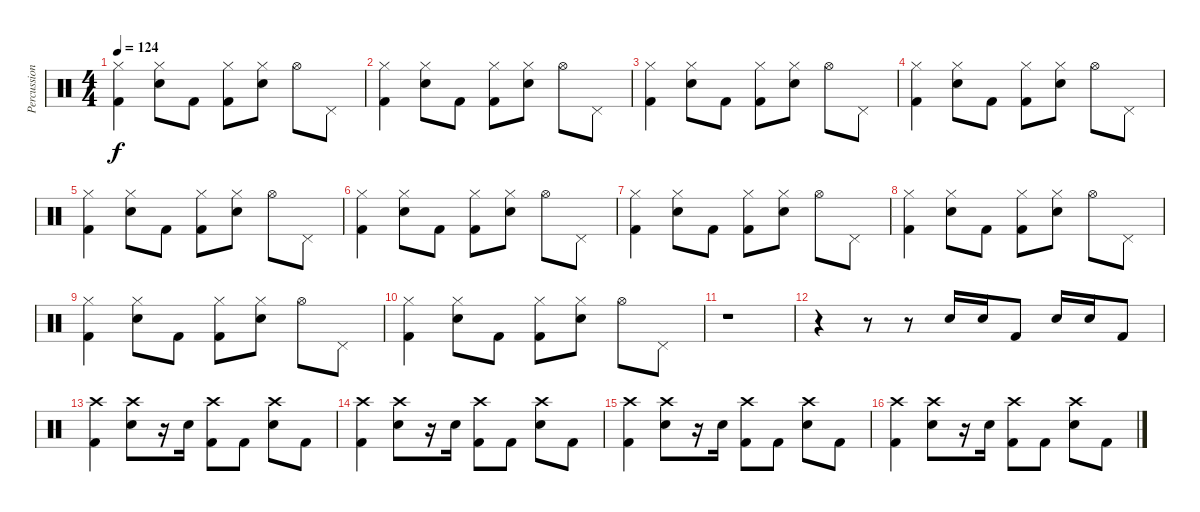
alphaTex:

\track ("Percussion" "Percussion") {instrument percussion}
\staff {score}
\articulation defaults
\ts (4 4)
\tempo 124
\clef neutral
\ks c
("Hi-Hat (closed)" "Kick (hit) 2").4{dy f} ("Hi-Hat (closed)" "Electric Snare (hit)").8 "Kick (hit) 2".8 ("Hi-Hat (closed)" "Kick (hit) 2").8 ("Hi-Hat (closed)" "Electric Snare (hit)").8 "Hi-Hat (open)".8 "Pedal Hi-Hat (hit)".8 |
("Hi-Hat (closed)" "Kick (hit) 2").4 ("Hi-Hat (closed)" "Electric Snare (hit)").8 "Kick (hit) 2".8 ("Hi-Hat (closed)" "Kick (hit) 2").8 ("Hi-Hat (closed)" "Electric Snare (hit)").8 "Hi-Hat (open)".8 "Pedal Hi-Hat (hit)".8 |
("Hi-Hat (closed)" "Kick (hit) 2").4 ("Hi-Hat (closed)" "Electric Snare (hit)").8 "Kick (hit) 2".8 ("Hi-Hat (closed)" "Kick (hit) 2").8 ("Hi-Hat (closed)" "Electric Snare (hit)").8 "Hi-Hat (open)".8 "Pedal Hi-Hat (hit)".8 |
("Hi-Hat (closed)" "Kick (hit) 2").4 ("Hi-Hat (closed)" "Electric Snare (hit)").8 "Kick (hit) 2".8 ("Hi-Hat (closed)" "Kick (hit) 2").8 ("Hi-Hat (closed)" "Electric Snare (hit)").8 "Hi-Hat (open)".8 "Pedal Hi-Hat (hit)".8 |
("Hi-Hat (closed)" "Kick (hit) 2").4 ("Hi-Hat (closed)" "Electric Snare (hit)").8 "Kick (hit) 2".8 ("Hi-Hat (closed)" "Kick (hit) 2").8 ("Hi-Hat (closed)" "Electric Snare (hit)").8 "Hi-Hat (open)".8 "Pedal Hi-Hat (hit)".8 |
("Hi-Hat (closed)" "Kick (hit) 2").4 ("Hi-Hat (closed)" "Electric Snare (hit)").8 "Kick (hit) 2".8 ("Hi-Hat (closed)" "Kick (hit) 2").8 ("Hi-Hat (closed)" "Electric Snare (hit)").8 "Hi-Hat (open)".8 "Pedal Hi-Hat (hit)".8 |
("Hi-Hat (closed)" "Kick (hit) 2").4 ("Hi-Hat (closed)" "Electric Snare (hit)").8 "Kick (hit) 2".8 ("Hi-Hat (closed)" "Kick (hit) 2").8 ("Hi-Hat (closed)" "Electric Snare (hit)").8 "Hi-Hat (open)".8 "Pedal Hi-Hat (hit)".8 |
("Hi-Hat (closed)" "Kick (hit) 2").4 ("Hi-Hat (closed)" "Electric Snare (hit)").8 "Kick (hit) 2".8 ("Hi-Hat (closed)" "Kick (hit) 2").8 ("Hi-Hat (closed)" "Electric Snare (hit)").8 "Hi-Hat (open)".8 "Pedal Hi-Hat (hit)".8 |
("Hi-Hat (closed)" "Kick (hit) 2").4 ("Hi-Hat (closed)" "Electric Snare (hit)").8 "Kick (hit) 2".8 ("Hi-Hat (closed)" "Kick (hit) 2").8 ("Hi-Hat (closed)" "Electric Snare (hit)").8 "Hi-Hat (open)".8 "Pedal Hi-Hat (hit)".8 |
("Hi-Hat (closed)" "Kick (hit) 2").4 ("Hi-Hat (closed)" "Electric Snare (hit)").8 "Kick (hit) 2".8 ("Hi-Hat (closed)" "Kick (hit) 2").8 ("Hi-Hat (closed)" "Electric Snare (hit)").8 "Hi-Hat (open)".8 "Pedal Hi-Hat (hit)".8 |
r.1 |
r.4 r.8 r.8 "Electric Snare (hit)".16 "Electric Snare (hit)".16 "Kick (hit) 2".8 "Electric Snare (hit)".16 "Electric Snare (hit)".16 "Kick (hit) 2".8 |
("Crash high (hit)" "Kick (hit) 2").4 ("Crash high (hit)" "Electric Snare (hit)").8 r.16 "Electric Snare (hit)".16 ("Crash high (hit)" "Kick (hit) 2").8 "Kick (hit) 2".8 ("Crash high (hit)" "Electric Snare (hit)").8 "Kick (hit) 2".8 |
("Crash high (hit)" "Kick (hit) 2").4 ("Crash high (hit)" "Electric Snare (hit)").8 r.16 "Electric Snare (hit)".16 ("Crash high (hit)" "Kick (hit) 2").8 "Kick (hit) 2".8 ("Crash high (hit)" "Electric Snare (hit)").8 "Kick (hit) 2".8 |
("Crash high (hit)" "Kick (hit) 2").4 ("Crash high (hit)" "Electric Snare (hit)").8 r.16 "Electric Snare (hit)".16 ("Crash high (hit)" "Kick (hit) 2").8 "Kick (hit) 2".8 ("Crash high (hit)" "Electric Snare (hit)").8 "Kick (hit) 2".8 |
("Crash high (hit)" "Kick (hit) 2").4 ("Crash high (hit)" "Electric Snare (hit)").8 r.16 "Electric Snare (hit)".16 ("Crash high (hit)" "Kick (hit) 2").8 "Kick (hit) 2".8 ("Crash high (hit)" "Electric Snare (hit)").8 "Kick (hit) 2".8
